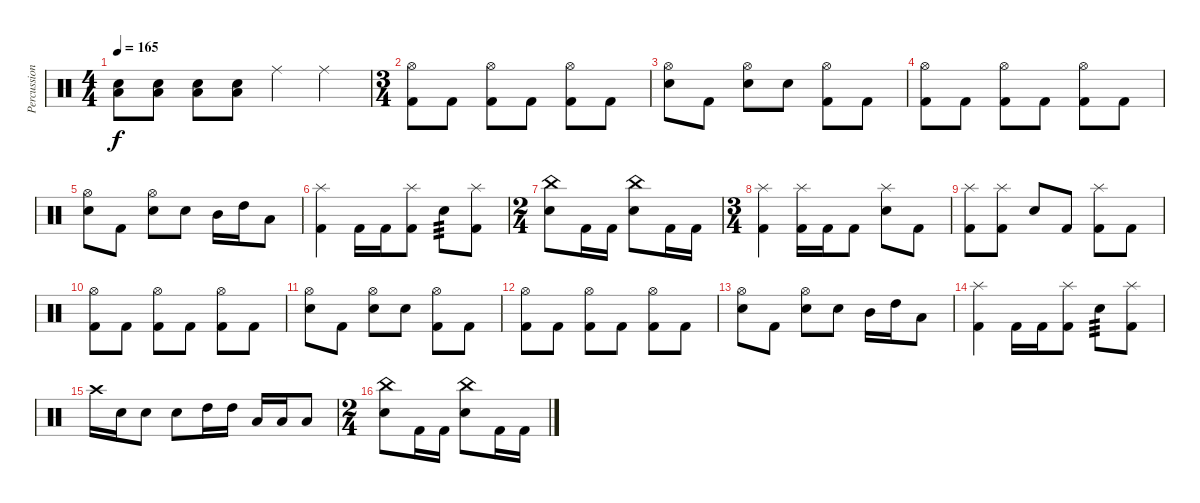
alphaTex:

\track ("Percussion" "Percussion") {instrument percussion}
\staff {score}
\articulation defaults
\ts (4 4)
\tempo 165
\clef neutral
\ks c
("Low Floor Tom (hit)" "Electric Snare (hit)").8{dy f} ("Low Floor Tom (hit)" "Electric Snare (hit)").8 ("Low Floor Tom (hit)" "Electric Snare (hit)").8 ("Low Floor Tom (hit)" "Electric Snare (hit)").8 "Ride (middle)".4 "Ride (middle)".4 |
\ts (3 4)
("Hi-Hat (open)" "Kick (hit) 2").8 "Kick (hit) 2".8 ("Hi-Hat (open)" "Kick (hit) 2").8 "Kick (hit) 2".8 ("Hi-Hat (open)" "Kick (hit) 2").8 "Kick (hit) 2".8 |
("Hi-Hat (open)" "Electric Snare (hit)").8 "Kick (hit) 2".8 ("Hi-Hat (open)" "Electric Snare (hit)").8 "Electric Snare (hit)".8 ("Hi-Hat (open)" "Kick (hit) 2").8 "Kick (hit) 2".8 |
("Hi-Hat (open)" "Kick (hit) 2").8 "Kick (hit) 2".8 ("Hi-Hat (open)" "Kick (hit) 2").8 "Kick (hit) 2".8 ("Hi-Hat (open)" "Kick (hit) 2").8 "Kick (hit) 2".8 |
("Hi-Hat (open)" "Electric Snare (hit)").8 "Kick (hit) 2".8 ("Hi-Hat (open)" "Electric Snare (hit)").8 "Electric Snare (hit)".8 "Mid Tom (hit)".16 "High Tom (hit)".16 "Low Tom (hit)".8 |
("Splash (hit)" "Kick (hit) 2").4 "Kick (hit) 2".16 "Kick (hit) 2".16 ("Splash (hit)" "Kick (hit) 2").8 "Electric Snare (hit)".8{tp 3} ("Splash (hit)" "Kick (hit) 2").8 |
\ts (2 4)
("China (hit)" "Electric Snare (hit)").8 "Kick (hit) 2".16 "Kick (hit) 2".16 ("China (hit)" "Electric Snare (hit)").8 "Kick (hit) 2".16 "Kick (hit) 2".16 |
\ts (3 4)
("Splash (hit)" "Kick (hit) 2").4 ("Splash (hit)" "Kick (hit) 2").16 "Kick (hit) 2".16 "Kick (hit) 2".8 ("Splash (hit)" "Electric Snare (hit)").8 "Kick (hit) 2".8 |
("Splash (hit)" "Kick (hit) 2").8 ("Splash (hit)" "Kick (hit) 2").8 "Electric Snare (hit)".8 "Kick (hit) 2".8 ("Splash (hit)" "Kick (hit) 2").8 "Kick (hit) 2".8 |
("Hi-Hat (open)" "Kick (hit) 2").8 "Kick (hit) 2".8 ("Hi-Hat (open)" "Kick (hit) 2").8 "Kick (hit) 2".8 ("Hi-Hat (open)" "Kick (hit) 2").8 "Kick (hit) 2".8 |
("Hi-Hat (open)" "Electric Snare (hit)").8 "Kick (hit) 2".8 ("Hi-Hat (open)" "Electric Snare (hit)").8 "Electric Snare (hit)".8 ("Hi-Hat (open)" "Kick (hit) 2").8 "Kick (hit) 2".8 |
("Hi-Hat (open)" "Kick (hit) 2").8 "Kick (hit) 2".8 ("Hi-Hat (open)" "Kick (hit) 2").8 "Kick (hit) 2".8 ("Hi-Hat (open)" "Kick (hit) 2").8 "Kick (hit) 2".8 |
("Hi-Hat (open)" "Electric Snare (hit)").8 "Kick (hit) 2".8 ("Hi-Hat (open)" "Electric Snare (hit)").8 "Electric Snare (hit)".8 "Mid Tom (hit)".16 "High Tom (hit)".16 "Low Tom (hit)".8 |
("Splash (hit)" "Kick (hit) 2").4 "Kick (hit) 2".16 "Kick (hit) 2".16 ("Splash (hit)" "Kick (hit) 2").8 "Electric Snare (hit)".8{tp 3} ("Splash (hit)" "Kick (hit) 2").8 |
"Crash high (hit)".16 "Electric Snare (hit)".16 "Electric Snare (hit)".8 "Electric Snare (hit)".8 "High Tom (hit)".16 "High Tom (hit)".16 "Low Tom (hit)".16 "Low Tom (hit)".16 "Low Floor Tom (hit)".8 |
\ts (2 4)
("China (hit)" "Electric Snare (hit)").8 "Kick (hit) 2".16 "Kick (hit) 2".16 ("China (hit)" "Electric Snare (hit)").8 "Kick (hit) 2".16 "Kick (hit) 2".16
